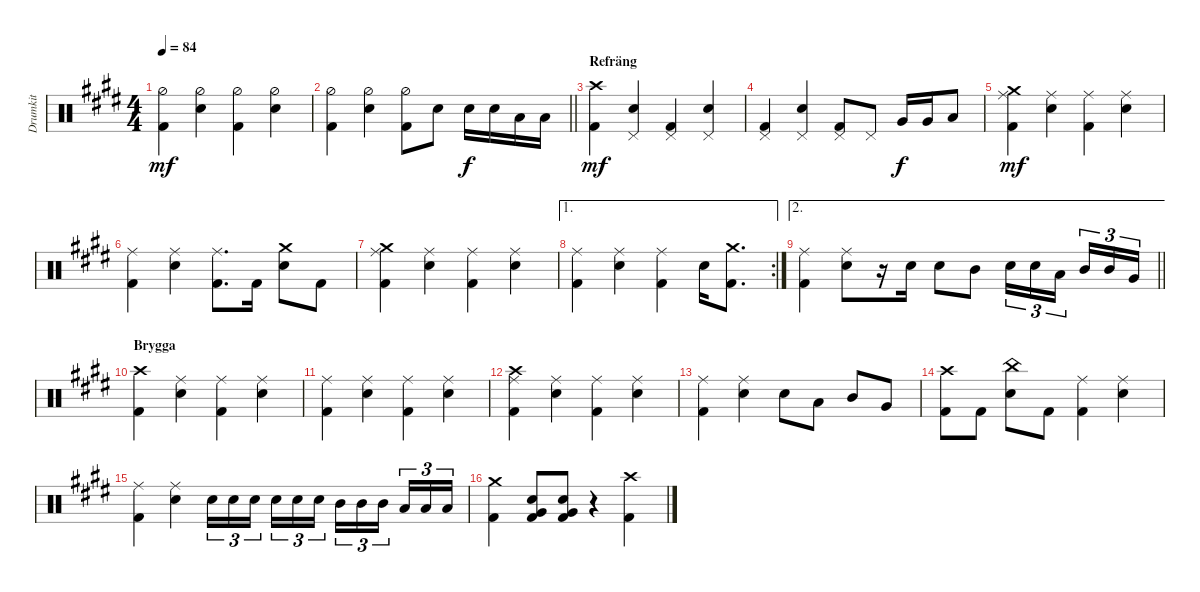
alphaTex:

\track ("Drumkit" "Drumkit") {instrument percussion}
\staff {score}
\articulation defaults
\ts (4 4)
\tempo 84
\clef neutral
\ks c#minor
("Kick (hit) 2" "Hi-Hat (half)").4{dy mf} ("Hi-Hat (half)" "Snare (hit) 2").4 ("Hi-Hat (half)" "Kick (hit) 2").4 ("Hi-Hat (half)" "Snare (hit) 2").4 |
\barLineRight lightlight
("Kick (hit) 2" "Hi-Hat (half)").4 ("Hi-Hat (half)" "Snare (hit) 2").4 ("Hi-Hat (half)" "Kick (hit) 2").8 "Snare (hit) 2".8 "Snare (hit) 2".16{dy f} "Snare (hit) 2".16 "Low Tom (hit)".16 "Low Tom (hit)".16 |
\section ("" "Refräng")
("Kick (hit) 2" "Crash high (hit)").4{dy mf} ("Snare (hit) 2" "Pedal Hi-Hat (hit)").4 ("Kick (hit) 2" "Pedal Hi-Hat (hit)").4 ("Snare (hit) 2" "Pedal Hi-Hat (hit)").4 |
("Kick (hit) 2" "Pedal Hi-Hat (hit)").4 ("Snare (hit) 2" "Pedal Hi-Hat (hit)").4 ("Kick (hit) 2" "Pedal Hi-Hat (hit)").8 "Pedal Hi-Hat (hit)".8 "Very Low Tom (hit)".16{dy f} "Very Low Tom (hit)".16 "Low Tom (hit)".8 |
("Kick (hit) 2" "Crash medium (hit)" "Ride (middle)").4{dy mf} ("Ride (middle)" "Snare (hit) 2").4 ("Ride (middle)" "Kick (hit) 2").4 ("Ride (middle)" "Snare (hit) 2").4 |
("Kick (hit) 2" "Ride (middle)").4 ("Ride (middle)" "Snare (hit) 2").4 ("Ride (middle)" "Kick (hit) 2").8{d} "Kick (hit) 2".16 ("Crash medium (hit)" "Snare (hit) 2").8 "Kick (hit) 2".8 |
("Kick (hit) 2" "Crash medium (hit)" "Ride (middle)").4 ("Ride (middle)" "Snare (hit) 2").4 ("Ride (middle)" "Kick (hit) 2").4 ("Ride (middle)" "Snare (hit) 2").4 |
\ae 1
\rc 2
("Kick (hit) 2" "Ride (middle)").4 ("Ride (middle)" "Snare (hit) 2").4 ("Ride (middle)" "Kick (hit) 2").4 "Snare (hit) 2".16 ("Kick (hit) 2" "Crash medium (hit)").8{d} |
\ae 2
\barLineRight lightlight
("Kick (hit) 2" "Ride (middle)").4 ("Ride (middle)" "Snare (hit) 2").8 r.16 "Snare (hit) 2".16 "Snare (hit) 2".8 "Mid Tom (hit)".8 "Snare (hit) 2".16{tu (3 2)} "Snare (hit) 2".16{tu (3 2)} "Low Tom (hit)".16{tu (3 2)} "Mid Tom (hit)".16{tu (3 2)} "Mid Tom (hit)".16{tu (3 2)} "Very Low Tom (hit)".16{tu (3 2)} |
\section ("" "Brygga")
("Crash high (hit)" "Kick (hit) 2").4 ("Ride (middle)" "Snare (hit) 2").4 ("Ride (middle)" "Kick (hit) 2").4 ("Ride (middle)" "Snare (hit) 2").4 |
("Kick (hit) 2" "Ride (middle)").4 ("Ride (middle)" "Snare (hit) 2").4 ("Ride (middle)" "Kick (hit) 2").4 ("Ride (middle)" "Snare (hit) 2").4 |
("Kick (hit) 2" "Ride (middle)" "Crash high (hit)").4 ("Ride (middle)" "Snare (hit) 2").4 ("Ride (middle)" "Kick (hit) 2").4 ("Ride (middle)" "Snare (hit) 2").4 |
("Kick (hit) 2" "Ride (middle)").4 ("Ride (middle)" "Snare (hit) 2").4 "Snare (hit) 2".8 "Low Tom (hit)".8 "Mid Tom (hit)".8 "Very Low Tom (hit)".8 |
("Kick (hit) 2" "Crash high (hit)").8 "Kick (hit) 2".8 ("Snare (hit) 2" "China (hit)").8 "Kick (hit) 2".8 ("Kick (hit) 2" "Ride (middle)").4 ("Snare (hit) 2" "Ride (middle)").4 |
("Kick (hit) 2" "Ride (middle)").4 ("Snare (hit) 2" "Ride (middle)").4 "Snare (hit) 2".16{tu (3 2)} "Snare (hit) 2".16{tu (3 2)} "Snare (hit) 2".16{tu (3 2)} "Snare (hit) 2".16{tu (3 2)} "Snare (hit) 2".16{tu (3 2)} "Snare (hit) 2".16{tu (3 2)} "Mid Tom (hit)".16{tu (3 2)} "Mid Tom (hit)".16{tu (3 2)} "Mid Tom (hit)".16{tu (3 2)} "Low Tom (hit)".16{tu (3 2)} "Low Tom (hit)".16{tu (3 2)} "Low Tom (hit)".16{tu (3 2)} |
("Crash medium (hit)" "Kick (hit) 2").4 ("Kick (hit) 2" "Very Low Tom (hit)" "Snare (hit) 2").8 ("Kick (hit) 2" "Very Low Tom (hit)" "Snare (hit) 2").8 r.4 ("Kick (hit) 2" "Crash high (hit)").4
